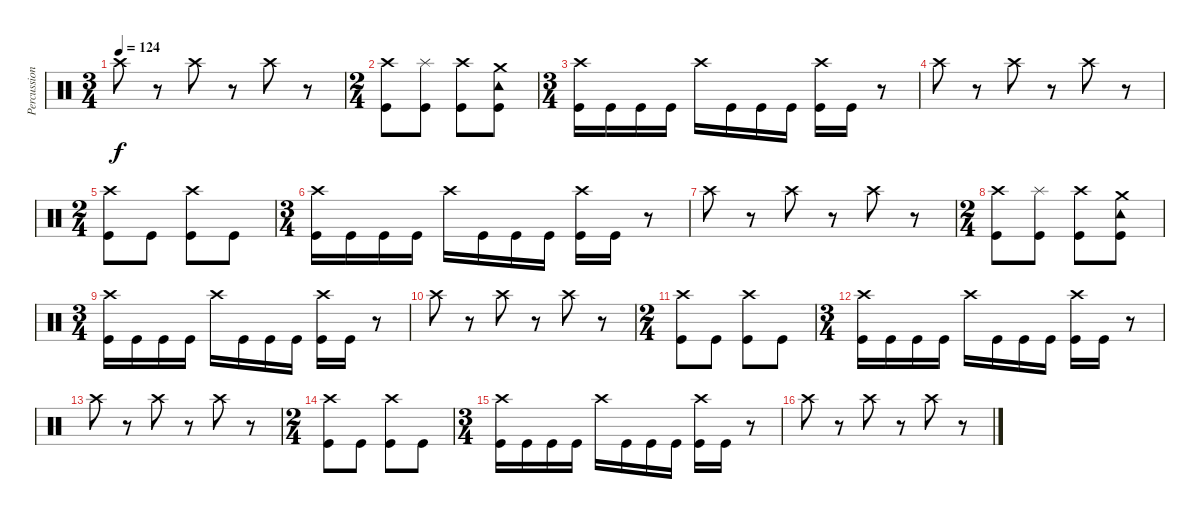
\track ("Percussion" "Percussion") {instrument percussion}
\staff {score}
\articulation defaults
\ts (3 4)
\tempo 124
\clef neutral
\ks c "Crash high (hit)".8{dy f}
r.8 "Crash high (hit)".8 r.8 "Crash high (hit)".8 r.8 |
\ts (2 4)
("Crash high (hit)" "Kick (hit)").8 ("Splash (hit)" "Kick (hit)").8 ("Crash high (hit)" "Kick (hit)").8 ("Tambourine (hit)" "Crash medium (hit)" "Kick (hit)").8 |
\ts (3 4)
("Crash high (hit)" "Kick (hit)").16 "Kick (hit)".16 "Kick (hit)".16 "Kick (hit)".16 "Crash high (hit)".16 "Kick (hit)".16 "Kick (hit)".16 "Kick (hit)".16 ("Crash high (hit)" "Kick (hit)").16 "Kick (hit)".16 r.8 |
"Crash high (hit)".8 r.8 "Crash high (hit)".8 r.8 "Crash high (hit)".8 r.8 |
\ts (2 4)
("Crash high (hit)" "Kick (hit)").8 "Kick (hit)".8 ("Crash high (hit)" "Kick (hit)").8 "Kick (hit)".8 |
\ts (3 4)
("Crash high (hit)" "Kick (hit)").16 "Kick (hit)".16 "Kick (hit)".16 "Kick (hit)".16 "Crash high (hit)".16 "Kick (hit)".16 "Kick (hit)".16 "Kick (hit)".16 ("Crash high (hit)" "Kick (hit)").16 "Kick (hit)".16 r.8 |
"Crash high (hit)".8 r.8 "Crash high (hit)".8 r.8 "Crash high (hit)".8 r.8 |
\ts (2 4)
("Crash high (hit)" "Kick (hit)").8 ("Splash (hit)" "Kick (hit)").8 ("Crash high (hit)" "Kick (hit)").8 ("Tambourine (hit)" "Crash medium (hit)" "Kick (hit)").8 |
\ts (3 4)
("Crash high (hit)" "Kick (hit)").16 "Kick (hit)".16 "Kick (hit)".16 "Kick (hit)".16 "Crash high (hit)".16 "Kick (hit)".16 "Kick (hit)".16 "Kick (hit)".16 ("Crash high (hit)" "Kick (hit)").16 "Kick (hit)".16 r.8 |
"Crash high (hit)".8 r.8 "Crash high (hit)".8 r.8 "Crash high (hit)".8 r.8 |
\ts (2 4)
("Crash high (hit)" "Kick (hit)").8 "Kick (hit)".8 ("Crash high (hit)" "Kick (hit)").8 "Kick (hit)".8 |
\ts (3 4)
("Crash high (hit)" "Kick (hit)").16 "Kick (hit)".16 "Kick (hit)".16 "Kick (hit)".16 "Crash high (hit)".16 "Kick (hit)".16 "Kick (hit)".16 "Kick (hit)".16 ("Crash high (hit)" "Kick (hit)").16 "Kick (hit)".16 r.8 |
"Crash high (hit)".8 r.8 "Crash high (hit)".8 r.8 "Crash high (hit)".8 r.8 |
\ts (2 4)
("Crash high (hit)" "Kick (hit)").8 "Kick (hit)".8 ("Crash high (hit)" "Kick (hit)").8 "Kick (hit)".8 |
\ts (3 4)
("Crash high (hit)" "Kick (hit)").16 "Kick (hit)".16 "Kick (hit)".16 "Kick (hit)".16 "Crash high (hit)".16 "Kick (hit)".16 "Kick (hit)".16 "Kick (hit)".16 ("Crash high (hit)" "Kick (hit)").16 "Kick (hit)".16 r.8 |
"Crash high (hit)".8 r.8 "Crash high (hit)".8 r.8 "Crash high (hit)".8 r.8
